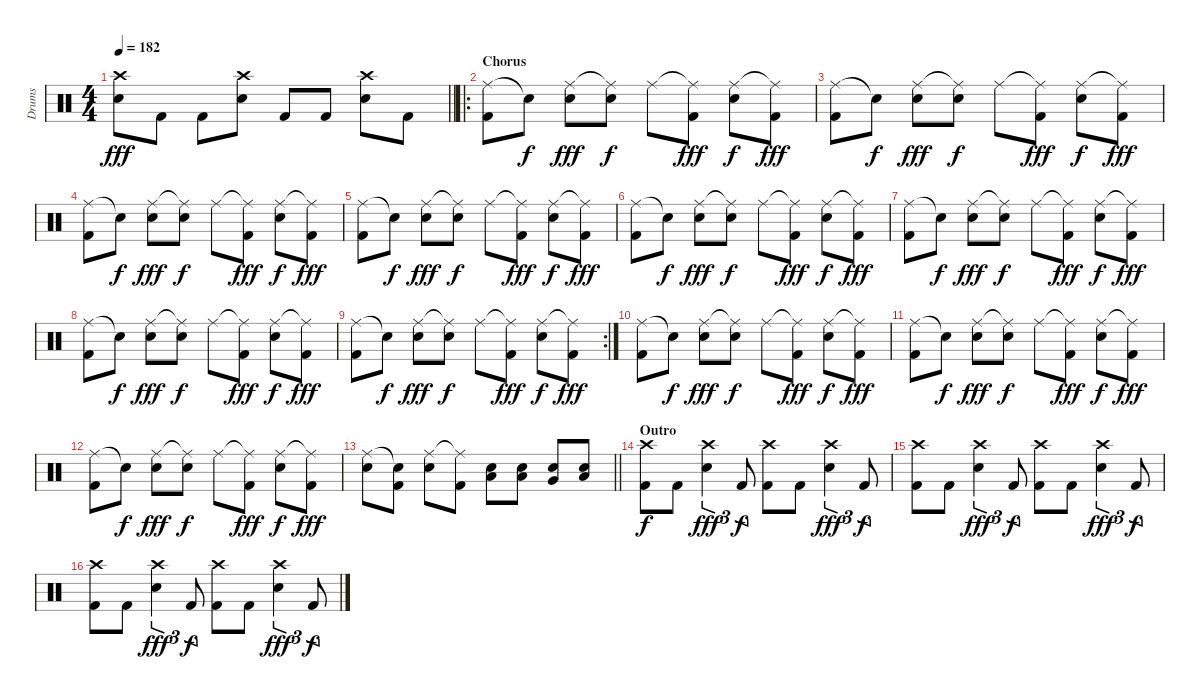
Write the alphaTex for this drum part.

\track ("Drums" "Drums") {instrument percussion}
\staff {score}
\articulation defaults
\ts (4 4)
\tempo 182
\clef neutral
\barLineRight lightlight
\ks c
("Crash high (hit)" "Electric Snare (hit)").8{dy fff} "Kick (hit) 2".8 "Kick (hit) 2".8 ("Crash high (hit)" "Electric Snare (hit)").8 "Kick (hit) 2".8 "Kick (hit) 2".8 ("Crash high (hit)" "Electric Snare (hit)").8 "Kick (hit) 2".8 |
\ro
\section ("" "Chorus")
("Ride (middle)" "Kick (hit) 2").8 "Snare (hit)"{t}.8{dy f} ("Ride (middle)" "Electric Snare (hit)").8{dy fff} ("Ride (middle)"{t} "Electric Snare (hit)").8{dy f} "Ride (middle)".8 ("Ride (middle)"{t} "Kick (hit) 2").8{dy fff} ("Ride (middle)" "Electric Snare (hit)").8{dy f} ("Ride (middle)"{t} "Kick (hit) 2").8{dy fff} |
("Ride (middle)" "Kick (hit) 2").8 "Snare (hit)"{t}.8{dy f} ("Ride (middle)" "Electric Snare (hit)").8{dy fff} ("Ride (middle)"{t} "Electric Snare (hit)").8{dy f} "Ride (middle)".8 ("Ride (middle)"{t} "Kick (hit) 2").8{dy fff} ("Ride (middle)" "Electric Snare (hit)").8{dy f} ("Ride (middle)"{t} "Kick (hit) 2").8{dy fff} |
("Ride (middle)" "Kick (hit) 2").8 "Snare (hit)"{t}.8{dy f} ("Ride (middle)" "Electric Snare (hit)").8{dy fff} ("Ride (middle)"{t} "Electric Snare (hit)").8{dy f} "Ride (middle)".8 ("Ride (middle)"{t} "Kick (hit) 2").8{dy fff} ("Ride (middle)" "Electric Snare (hit)").8{dy f} ("Ride (middle)"{t} "Kick (hit) 2").8{dy fff} |
("Ride (middle)" "Kick (hit) 2").8 "Snare (hit)"{t}.8{dy f} ("Ride (middle)" "Electric Snare (hit)").8{dy fff} ("Ride (middle)"{t} "Electric Snare (hit)").8{dy f} "Ride (middle)".8 ("Ride (middle)"{t} "Kick (hit) 2").8{dy fff} ("Ride (middle)" "Electric Snare (hit)").8{dy f} ("Ride (middle)"{t} "Kick (hit) 2").8{dy fff} |
("Ride (middle)" "Kick (hit) 2").8 "Snare (hit)"{t}.8{dy f} ("Ride (middle)" "Electric Snare (hit)").8{dy fff} ("Ride (middle)"{t} "Electric Snare (hit)").8{dy f} "Ride (middle)".8 ("Ride (middle)"{t} "Kick (hit) 2").8{dy fff} ("Ride (middle)" "Electric Snare (hit)").8{dy f} ("Ride (middle)"{t} "Kick (hit) 2").8{dy fff} |
("Ride (middle)" "Kick (hit) 2").8 "Snare (hit)"{t}.8{dy f} ("Ride (middle)" "Electric Snare (hit)").8{dy fff} ("Ride (middle)"{t} "Electric Snare (hit)").8{dy f} "Ride (middle)".8 ("Ride (middle)"{t} "Kick (hit) 2").8{dy fff} ("Ride (middle)" "Electric Snare (hit)").8{dy f} ("Ride (middle)"{t} "Kick (hit) 2").8{dy fff} |
("Ride (middle)" "Kick (hit) 2").8 "Snare (hit)"{t}.8{dy f} ("Ride (middle)" "Electric Snare (hit)").8{dy fff} ("Ride (middle)"{t} "Electric Snare (hit)").8{dy f} "Ride (middle)".8 ("Ride (middle)"{t} "Kick (hit) 2").8{dy fff} ("Ride (middle)" "Electric Snare (hit)").8{dy f} ("Ride (middle)"{t} "Kick (hit) 2").8{dy fff} |
\rc 2
("Ride (middle)" "Kick (hit) 2").8 "Snare (hit)"{t}.8{dy f} ("Ride (middle)" "Electric Snare (hit)").8{dy fff} ("Ride (middle)"{t} "Electric Snare (hit)").8{dy f} "Ride (middle)".8 ("Ride (middle)"{t} "Kick (hit) 2").8{dy fff} ("Ride (middle)" "Electric Snare (hit)").8{dy f} ("Ride (middle)"{t} "Kick (hit) 2").8{dy fff} |
("Ride (middle)" "Kick (hit) 2").8 "Snare (hit)"{t}.8{dy f} ("Ride (middle)" "Electric Snare (hit)").8{dy fff} ("Ride (middle)"{t} "Electric Snare (hit)").8{dy f} "Ride (middle)".8 ("Ride (middle)"{t} "Kick (hit) 2").8{dy fff} ("Ride (middle)" "Electric Snare (hit)").8{dy f} ("Ride (middle)"{t} "Kick (hit) 2").8{dy fff} |
("Ride (middle)" "Kick (hit) 2").8 "Snare (hit)"{t}.8{dy f} ("Ride (middle)" "Electric Snare (hit)").8{dy fff} ("Ride (middle)"{t} "Electric Snare (hit)").8{dy f} "Ride (middle)".8 ("Ride (middle)"{t} "Kick (hit) 2").8{dy fff} ("Ride (middle)" "Electric Snare (hit)").8{dy f} ("Ride (middle)"{t} "Kick (hit) 2").8{dy fff} |
("Ride (middle)" "Kick (hit) 2").8 "Snare (hit)"{t}.8{dy f} ("Ride (middle)" "Electric Snare (hit)").8{dy fff} ("Ride (middle)"{t} "Electric Snare (hit)").8{dy f} "Ride (middle)".8 ("Ride (middle)"{t} "Kick (hit) 2").8{dy fff} ("Ride (middle)" "Electric Snare (hit)").8{dy f} ("Ride (middle)"{t} "Kick (hit) 2").8{dy fff} |
\barLineRight lightlight
("Ride (middle)" "Electric Snare (hit)").8 ("Snare (hit)"{t} "Kick (hit) 2").8 ("Ride (middle)" "Electric Snare (hit)").8 ("Ride (middle)"{t} "Kick (hit) 2").8 ("Low Tom (hit)" "Electric Snare (hit)").8 ("Low Tom (hit)" "Electric Snare (hit)").8 ("Very Low Tom (hit)" "Electric Snare (hit)").8 ("Low Floor Tom (hit)" "Electric Snare (hit)").8 |
\section ("" "Outro")
("Crash high (hit)" "Kick (hit) 2").8{dy f} "Kick (hit) 2".8 ("Crash high (hit)" "Electric Snare (hit)").4{tu (3 2) dy fff} "Kick (hit) 2".8{tu (3 2) dy f} ("Crash high (hit)" "Kick (hit) 2").8 "Kick (hit) 2".8 ("Crash high (hit)" "Electric Snare (hit)").4{tu (3 2) dy fff} "Kick (hit) 2".8{tu (3 2) dy f} |
("Crash high (hit)" "Kick (hit) 2").8 "Kick (hit) 2".8 ("Crash high (hit)" "Electric Snare (hit)").4{tu (3 2) dy fff} "Kick (hit) 2".8{tu (3 2) dy f} ("Crash high (hit)" "Kick (hit) 2").8 "Kick (hit) 2".8 ("Crash high (hit)" "Electric Snare (hit)").4{tu (3 2) dy fff} "Kick (hit) 2".8{tu (3 2) dy f} |
("Crash high (hit)" "Kick (hit) 2").8 "Kick (hit) 2".8 ("Crash high (hit)" "Electric Snare (hit)").4{tu (3 2) dy fff} "Kick (hit) 2".8{tu (3 2) dy f} ("Crash high (hit)" "Kick (hit) 2").8 "Kick (hit) 2".8 ("Crash high (hit)" "Electric Snare (hit)").4{tu (3 2) dy fff} "Kick (hit) 2".8{tu (3 2) dy f}
